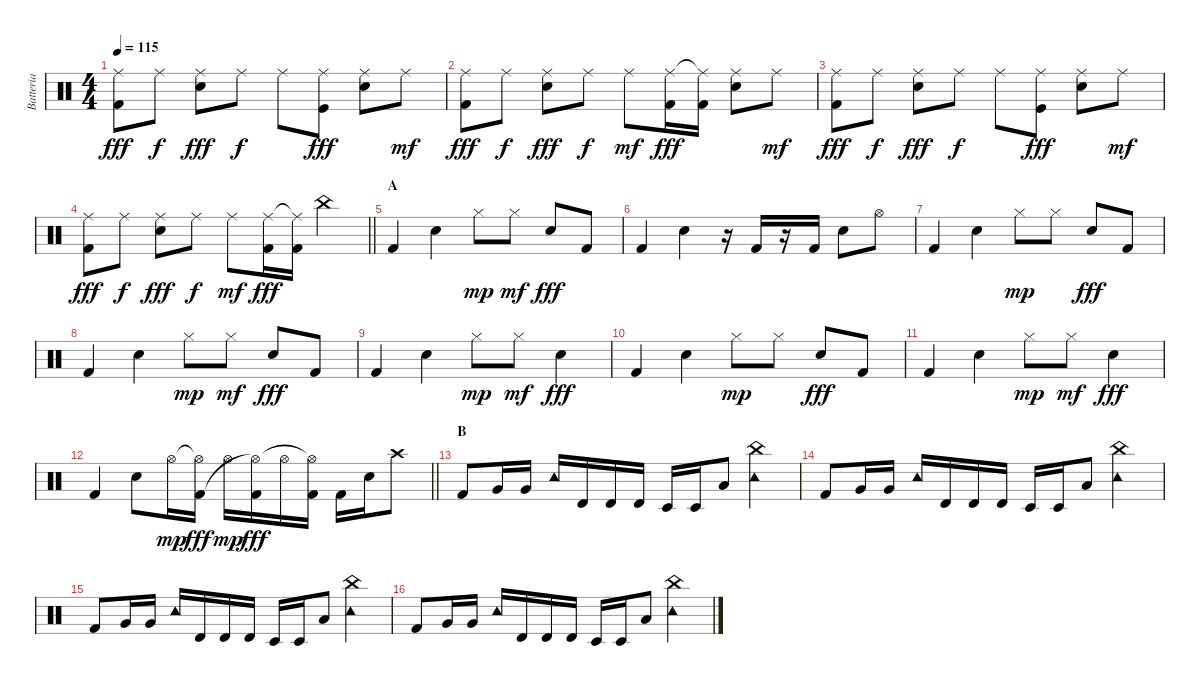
\track ("Batteria" "Batteria") {instrument percussion}
\staff {score}
\articulation defaults
\ts (4 4)
\tempo 115
\clef neutral
\ks c
("Ride (middle)" "Kick (hit) 2").8{dy fff} "Ride (middle)".8{dy f} ("Ride (middle)" "Snare (hit) 2").8{dy fff} "Ride (middle)".8{dy f} "Ride (middle)".8 ("Ride (middle)" "Kick (hit)").8{dy fff} ("Ride (middle)" "Snare (hit) 2").8 "Ride (middle)".8{dy mf} |
("Ride (middle)" "Kick (hit) 2").8{dy fff} "Ride (middle)".8{dy f} ("Ride (middle)" "Snare (hit) 2").8{dy fff} "Ride (middle)".8{dy f} "Ride (middle)".8{dy mf} ("Ride (middle)" "Kick (hit) 2").16{dy fff} ("Ride (middle)"{t} "Kick (hit) 2").16 ("Ride (middle)" "Snare (hit) 2").8 "Ride (middle)".8{dy mf} |
("Ride (middle)" "Kick (hit) 2").8{dy fff} "Ride (middle)".8{dy f} ("Ride (middle)" "Snare (hit) 2").8{dy fff} "Ride (middle)".8{dy f} "Ride (middle)".8 ("Ride (middle)" "Kick (hit)").8{dy fff} ("Ride (middle)" "Snare (hit) 2").8 "Ride (middle)".8{dy mf} |
\barLineRight lightlight
("Ride (middle)" "Kick (hit) 2").8{dy fff} "Ride (middle)".8{dy f} ("Ride (middle)" "Snare (hit) 2").8{dy fff} "Ride (middle)".8{dy f} "Ride (middle)".8{dy mf} ("Ride (middle)" "Kick (hit) 2").16{dy fff} ("Ride (middle)"{t} "Kick (hit) 2").16 "China (hit)".4 |
\section ("" "A")
"Kick (hit) 2".4 "Snare (hit) 2".4 "Hi-Hat (closed)".8{dy mp} "Hi-Hat (closed)".8{dy mf} "Snare (hit) 2".8{dy fff} "Kick (hit) 2".8 |
"Kick (hit) 2".4 "Snare (hit) 2".4 r.16 "Kick (hit) 2".16 r.16 "Kick (hit) 2".16 "Snare (hit) 2".8 "Hi-Hat (open)".8 |
"Kick (hit) 2".4 "Snare (hit) 2".4 "Hi-Hat (closed)".8{dy mp} "Hi-Hat (closed)".8 "Snare (hit) 2".8{dy fff} "Kick (hit) 2".8 |
"Kick (hit) 2".4 "Snare (hit) 2".4 "Hi-Hat (closed)".8{dy mp} "Hi-Hat (closed)".8{dy mf} "Snare (hit) 2".8{dy fff} "Kick (hit) 2".8 |
"Kick (hit) 2".4 "Snare (hit) 2".4 "Hi-Hat (closed)".8{dy mp} "Hi-Hat (closed)".8{dy mf} "Snare (hit) 2".4{dy fff} |
"Kick (hit) 2".4 "Snare (hit) 2".4 "Hi-Hat (closed)".8{dy mp} "Hi-Hat (closed)".8 "Snare (hit) 2".8{dy fff} "Kick (hit) 2".8 |
"Kick (hit) 2".4 "Snare (hit) 2".4 "Hi-Hat (closed)".8{dy mp} "Hi-Hat (closed)".8{dy mf} "Snare (hit) 2".4{dy fff} |
\barLineRight lightlight "Kick (hit) 2".4 "Snare (hit) 2".8 "Hi-Hat (open)".16{dy mp}
("Hi-Hat (open)"{t} "Kick (hit) 2").16{dy fff} "Hi-Hat (open)".16{dy mp} ("Kick (hit) 2" "Hi-Hat (open)"{t}).16{dy fff} "Hi-Hat (open)".16 ("Kick (hit) 2" "Hi-Hat (open)"{t}).16 "Kick (hit) 2".16 "Snare (hit) 2".16 "Crash high (hit)".8 |
\section ("" "B")
"Kick (hit) 2".8 "Very Low Tom (hit)".16 "Very Low Tom (hit)".16 "Tambourine (hit)".16 "Timbale high (hit)".16 "Timbale high (hit)".16 "Timbale high (hit)".16 "Timbale low (hit)".16 "Timbale low (hit)".16 "Low Floor Tom (hit)".8 ("China (hit)" "Tambourine (hit)").4 |
"Kick (hit) 2".8 "Very Low Tom (hit)".16 "Very Low Tom (hit)".16 "Tambourine (hit)".16 "Timbale high (hit)".16 "Timbale high (hit)".16 "Timbale high (hit)".16 "Timbale low (hit)".16 "Timbale low (hit)".16 "Low Floor Tom (hit)".8 ("China (hit)" "Tambourine (hit)").4 |
"Kick (hit) 2".8 "Very Low Tom (hit)".16 "Very Low Tom (hit)".16 "Tambourine (hit)".16 "Timbale high (hit)".16 "Timbale high (hit)".16 "Timbale high (hit)".16 "Timbale low (hit)".16 "Timbale low (hit)".16 "Low Floor Tom (hit)".8 ("China (hit)" "Tambourine (hit)").4 |
"Kick (hit) 2".8 "Very Low Tom (hit)".16 "Very Low Tom (hit)".16 "Tambourine (hit)".16 "Timbale high (hit)".16 "Timbale high (hit)".16 "Timbale high (hit)".16 "Timbale low (hit)".16 "Timbale low (hit)".16 "Low Floor Tom (hit)".8 ("China (hit)" "Tambourine (hit)").4
